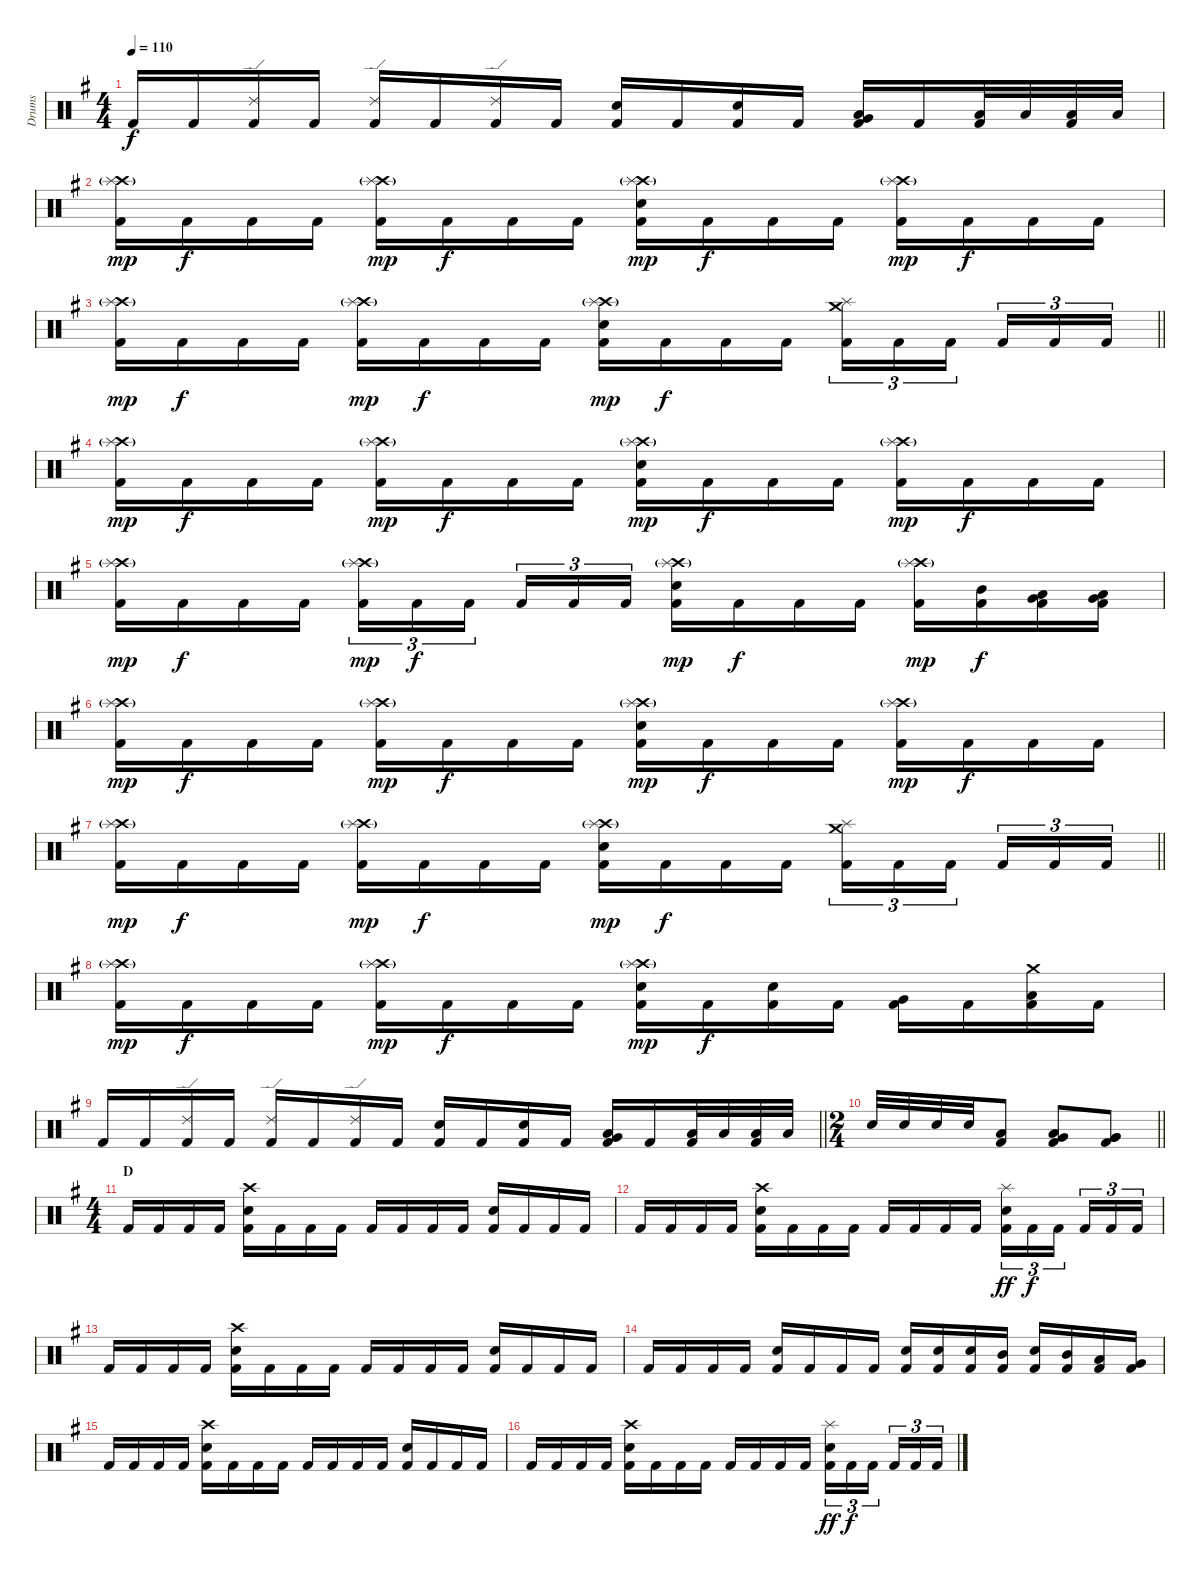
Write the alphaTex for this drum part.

\track ("Drums" "Drums") {instrument percussion}
\staff {score}
\articulation defaults
\ts (4 4)
\tempo 110
\clef neutral
\ks eminor "Kick (hit) 2".16{dy f} "Kick (hit) 2".16
("Ride (edge) 2" "Kick (hit) 2").16 "Kick (hit) 2".16 ("Ride (edge) 2" "Kick (hit) 2").16 "Kick (hit) 2".16 ("Ride (edge) 2" "Kick (hit) 2").16 "Kick (hit) 2".16 ("Snare (hit) 2" "Kick (hit) 2").16 "Kick (hit) 2".16 ("Snare (hit) 2" "Kick (hit) 2").16 "Kick (hit) 2".16 ("Low Floor Tom (hit)" "Very Low Tom (hit)" "Kick (hit) 2").16 "Kick (hit) 2".16 ("Low Floor Tom (hit)" "Kick (hit) 2").32 "Low Floor Tom (hit)".32 ("Low Floor Tom (hit)" "Kick (hit) 2").32 "Low Floor Tom (hit)".32 |
("Crash high (hit)"{g} "Splash (hit)" "Kick (hit) 2").16{dy mp} "Kick (hit) 2".16{dy f} "Kick (hit) 2".16 "Kick (hit) 2".16 ("Crash high (hit)"{g} "Splash (hit)" "Kick (hit) 2").16{dy mp} "Kick (hit) 2".16{dy f} "Kick (hit) 2".16 "Kick (hit) 2".16 ("Crash high (hit)"{g} "Splash (hit)" "Snare (hit) 2" "Kick (hit) 2").16{dy mp} "Kick (hit) 2".16{dy f} "Kick (hit) 2".16 "Kick (hit) 2".16 ("Crash high (hit)"{g} "Splash (hit)" "Kick (hit) 2").16{dy mp} "Kick (hit) 2".16{dy f} "Kick (hit) 2".16 "Kick (hit) 2".16 |
\barLineRight lightlight
("Crash high (hit)"{g} "Splash (hit)" "Kick (hit) 2").16{dy mp} "Kick (hit) 2".16{dy f} "Kick (hit) 2".16 "Kick (hit) 2".16 ("Crash high (hit)"{g} "Splash (hit)" "Kick (hit) 2").16{dy mp} "Kick (hit) 2".16{dy f} "Kick (hit) 2".16 "Kick (hit) 2".16 ("Crash high (hit)"{g} "Splash (hit)" "Snare (hit) 2" "Kick (hit) 2").16{dy mp} "Kick (hit) 2".16{dy f} "Kick (hit) 2".16 "Kick (hit) 2".16 ("Crash medium (hit)" "Splash (hit)" "Kick (hit) 2").16{tu (3 2)} "Kick (hit) 2".16{tu (3 2)} "Kick (hit) 2".16{tu (3 2) beam splitsecondary} "Kick (hit) 2".16{tu (3 2)} "Kick (hit) 2".16{tu (3 2)} "Kick (hit) 2".16{tu (3 2)} |
("Crash high (hit)"{g} "Splash (hit)" "Kick (hit) 2").16{dy mp} "Kick (hit) 2".16{dy f} "Kick (hit) 2".16 "Kick (hit) 2".16 ("Crash high (hit)"{g} "Splash (hit)" "Kick (hit) 2").16{dy mp} "Kick (hit) 2".16{dy f} "Kick (hit) 2".16 "Kick (hit) 2".16 ("Crash high (hit)"{g} "Splash (hit)" "Snare (hit) 2" "Kick (hit) 2").16{dy mp} "Kick (hit) 2".16{dy f} "Kick (hit) 2".16 "Kick (hit) 2".16 ("Crash high (hit)"{g} "Splash (hit)" "Kick (hit) 2").16{dy mp} "Kick (hit) 2".16{dy f} "Kick (hit) 2".16 "Kick (hit) 2".16 |
("Crash high (hit)"{g} "Splash (hit)" "Kick (hit) 2").16{dy mp} "Kick (hit) 2".16{dy f} "Kick (hit) 2".16 "Kick (hit) 2".16 ("Crash high (hit)"{g} "Splash (hit)" "Kick (hit) 2").16{tu (3 2) dy mp} "Kick (hit) 2".16{tu (3 2) dy f} "Kick (hit) 2".16{tu (3 2) beam splitsecondary} "Kick (hit) 2".16{tu (3 2)} "Kick (hit) 2".16{tu (3 2)} "Kick (hit) 2".16{tu (3 2)} ("Crash high (hit)"{g} "Splash (hit)" "Snare (hit) 2" "Kick (hit) 2").16{dy mp} "Kick (hit) 2".16{dy f} "Kick (hit) 2".16 "Kick (hit) 2".16 ("Crash high (hit)"{g} "Splash (hit)" "Kick (hit) 2").16{dy mp} ("Mid Tom (hit)" "Kick (hit) 2").16{dy f} ("Very Low Tom (hit)" "Low Tom (hit)" "Kick (hit) 2").16 ("Low Floor Tom (hit)" "Very Low Tom (hit)" "Kick (hit) 2").16 |
("Crash high (hit)"{g} "Splash (hit)" "Kick (hit) 2").16{dy mp} "Kick (hit) 2".16{dy f} "Kick (hit) 2".16 "Kick (hit) 2".16 ("Crash high (hit)"{g} "Splash (hit)" "Kick (hit) 2").16{dy mp} "Kick (hit) 2".16{dy f} "Kick (hit) 2".16 "Kick (hit) 2".16 ("Crash high (hit)"{g} "Splash (hit)" "Snare (hit) 2" "Kick (hit) 2").16{dy mp} "Kick (hit) 2".16{dy f} "Kick (hit) 2".16 "Kick (hit) 2".16 ("Crash high (hit)"{g} "Splash (hit)" "Kick (hit) 2").16{dy mp} "Kick (hit) 2".16{dy f} "Kick (hit) 2".16 "Kick (hit) 2".16 |
\barLineRight lightlight
("Crash high (hit)"{g} "Splash (hit)" "Kick (hit) 2").16{dy mp} "Kick (hit) 2".16{dy f} "Kick (hit) 2".16 "Kick (hit) 2".16 ("Crash high (hit)"{g} "Splash (hit)" "Kick (hit) 2").16{dy mp} "Kick (hit) 2".16{dy f} "Kick (hit) 2".16 "Kick (hit) 2".16 ("Crash high (hit)"{g} "Splash (hit)" "Snare (hit) 2" "Kick (hit) 2").16{dy mp} "Kick (hit) 2".16{dy f} "Kick (hit) 2".16 "Kick (hit) 2".16 ("Crash medium (hit)" "Splash (hit)" "Kick (hit) 2").16{tu (3 2)} "Kick (hit) 2".16{tu (3 2)} "Kick (hit) 2".16{tu (3 2) beam splitsecondary} "Kick (hit) 2".16{tu (3 2)} "Kick (hit) 2".16{tu (3 2)} "Kick (hit) 2".16{tu (3 2)} |
("Crash high (hit)"{g} "Splash (hit)" "Kick (hit) 2").16{dy mp} "Kick (hit) 2".16{dy f} "Kick (hit) 2".16 "Kick (hit) 2".16 ("Crash high (hit)"{g} "Splash (hit)" "Kick (hit) 2").16{dy mp} "Kick (hit) 2".16{dy f} "Kick (hit) 2".16 "Kick (hit) 2".16 ("Crash high (hit)"{g} "Splash (hit)" "Snare (hit) 2" "Kick (hit) 2").16{dy mp} "Kick (hit) 2".16{dy f} ("Snare (hit) 2" "Kick (hit) 2").16 "Kick (hit) 2".16 ("Very Low Tom (hit)" "Kick (hit) 2").16 "Kick (hit) 2".16 ("Crash medium (hit)" "Low Floor Tom (hit)" "Kick (hit) 2").16 "Kick (hit) 2".16 |
\barLineRight lightlight "Kick (hit) 2".16 "Kick (hit) 2".16
("Ride (edge) 2" "Kick (hit) 2").16 "Kick (hit) 2".16 ("Ride (edge) 2" "Kick (hit) 2").16 "Kick (hit) 2".16 ("Ride (edge) 2" "Kick (hit) 2").16 "Kick (hit) 2".16 ("Snare (hit) 2" "Kick (hit) 2").16 "Kick (hit) 2".16 ("Snare (hit) 2" "Kick (hit) 2").16 "Kick (hit) 2".16 ("Low Floor Tom (hit)" "Very Low Tom (hit)" "Kick (hit) 2").16 "Kick (hit) 2".16 ("Low Floor Tom (hit)" "Kick (hit) 2").32 "Low Floor Tom (hit)".32 ("Low Floor Tom (hit)" "Kick (hit) 2").32 "Low Floor Tom (hit)".32 |
\ts (2 4)
\barLineRight lightlight "Snare (hit) 2".32 "Snare (hit) 2".32 "Snare (hit) 2".32 "Snare (hit) 2".32
("Low Tom (hit)" "Kick (hit) 2").8 ("Very Low Tom (hit)" "Low Tom (hit)" "Kick (hit) 2").8 ("Very Low Tom (hit)" "Very Low Tom (hit)" "Kick (hit) 2").8 |
\ts (4 4)
\section ("" "D")
"Kick (hit) 2".16 "Kick (hit) 2".16 "Kick (hit) 2".16 "Kick (hit) 2".16 ("Crash high (hit)" "Snare (hit) 2" "Kick (hit) 2").16 "Kick (hit) 2".16 "Kick (hit) 2".16 "Kick (hit) 2".16 "Kick (hit) 2".16 "Kick (hit) 2".16 "Kick (hit) 2".16 "Kick (hit) 2".16 ("Snare (hit) 2" "Kick (hit) 2").16 "Kick (hit) 2".16 "Kick (hit) 2".16 "Kick (hit) 2".16 |
"Kick (hit) 2".16 "Kick (hit) 2".16 "Kick (hit) 2".16 "Kick (hit) 2".16 ("Crash high (hit)" "Snare (hit) 2" "Kick (hit) 2").16 "Kick (hit) 2".16 "Kick (hit) 2".16 "Kick (hit) 2".16 "Kick (hit) 2".16 "Kick (hit) 2".16 "Kick (hit) 2".16 "Kick (hit) 2".16 ("Splash (hit)" "Snare (hit) 2" "Kick (hit) 2").16{tu (3 2) dy ff} "Kick (hit) 2".16{tu (3 2) dy f} "Kick (hit) 2".16{tu (3 2) beam splitsecondary} "Kick (hit) 2".16{tu (3 2)} "Kick (hit) 2".16{tu (3 2)} "Kick (hit) 2".16{tu (3 2)} |
"Kick (hit) 2".16 "Kick (hit) 2".16 "Kick (hit) 2".16 "Kick (hit) 2".16 ("Crash high (hit)" "Snare (hit) 2" "Kick (hit) 2").16 "Kick (hit) 2".16 "Kick (hit) 2".16 "Kick (hit) 2".16 "Kick (hit) 2".16 "Kick (hit) 2".16 "Kick (hit) 2".16 "Kick (hit) 2".16 ("Snare (hit) 2" "Kick (hit) 2").16 "Kick (hit) 2".16 "Kick (hit) 2".16 "Kick (hit) 2".16 |
"Kick (hit) 2".16 "Kick (hit) 2".16 "Kick (hit) 2".16 "Kick (hit) 2".16 ("Snare (hit) 2" "Kick (hit) 2").16 "Kick (hit) 2".16 "Kick (hit) 2".16 "Kick (hit) 2".16 ("Snare (hit) 2" "Kick (hit) 2").16 ("Snare (hit) 2" "Kick (hit) 2").16 ("Snare (hit) 2" "Kick (hit) 2").16 ("Mid Tom (hit)" "Kick (hit) 2").16 ("Snare (hit) 2" "Kick (hit) 2").16 ("Mid Tom (hit)" "Kick (hit) 2").16 ("Low Tom (hit)" "Kick (hit) 2").16 ("Very Low Tom (hit)" "Kick (hit) 2").16 |
"Kick (hit) 2".16 "Kick (hit) 2".16 "Kick (hit) 2".16 "Kick (hit) 2".16 ("Crash high (hit)" "Snare (hit) 2" "Kick (hit) 2").16 "Kick (hit) 2".16 "Kick (hit) 2".16 "Kick (hit) 2".16 "Kick (hit) 2".16 "Kick (hit) 2".16 "Kick (hit) 2".16 "Kick (hit) 2".16 ("Snare (hit) 2" "Kick (hit) 2").16 "Kick (hit) 2".16 "Kick (hit) 2".16 "Kick (hit) 2".16 |
"Kick (hit) 2".16 "Kick (hit) 2".16 "Kick (hit) 2".16 "Kick (hit) 2".16 ("Crash high (hit)" "Snare (hit) 2" "Kick (hit) 2").16 "Kick (hit) 2".16 "Kick (hit) 2".16 "Kick (hit) 2".16 "Kick (hit) 2".16 "Kick (hit) 2".16 "Kick (hit) 2".16 "Kick (hit) 2".16 ("Splash (hit)" "Snare (hit) 2" "Kick (hit) 2").16{tu (3 2) dy ff} "Kick (hit) 2".16{tu (3 2) dy f} "Kick (hit) 2".16{tu (3 2) beam splitsecondary} "Kick (hit) 2".16{tu (3 2)} "Kick (hit) 2".16{tu (3 2)} "Kick (hit) 2".16{tu (3 2)}
